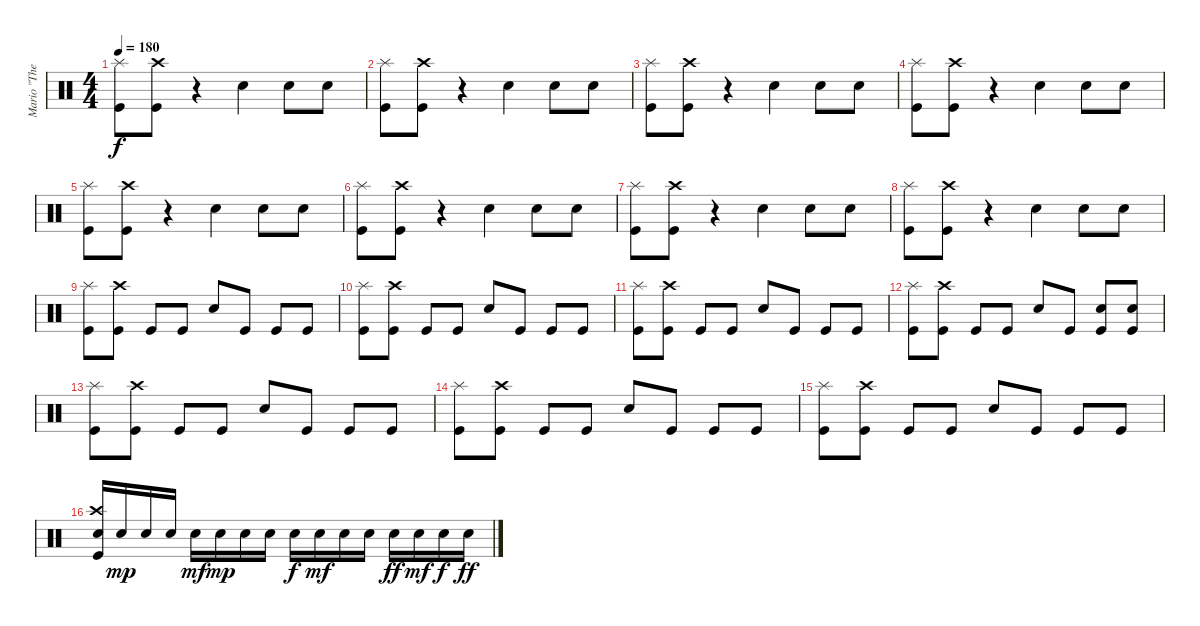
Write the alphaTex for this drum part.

\track ("Mario \"The dremmel\" Hirt" "Mario \"The") {instrument percussion}
\staff {score}
\articulation defaults
\ts (4 4)
\tempo 180
\clef neutral
\ks c
("Splash (hit)" "Kick (hit)").8{dy f} ("Crash high (hit)" "Kick (hit)").8 r.4 "Electric Snare (hit)".4 "Electric Snare (hit)".8 "Electric Snare (hit)".8 |
("Splash (hit)" "Kick (hit)").8 ("Crash high (hit)" "Kick (hit)").8 r.4 "Electric Snare (hit)".4 "Electric Snare (hit)".8 "Electric Snare (hit)".8 |
("Splash (hit)" "Kick (hit)").8 ("Crash high (hit)" "Kick (hit)").8 r.4 "Electric Snare (hit)".4 "Electric Snare (hit)".8 "Electric Snare (hit)".8 |
("Splash (hit)" "Kick (hit)").8 ("Crash high (hit)" "Kick (hit)").8 r.4 "Electric Snare (hit)".4 "Electric Snare (hit)".8 "Electric Snare (hit)".8 |
("Splash (hit)" "Kick (hit)").8 ("Crash high (hit)" "Kick (hit)").8 r.4 "Electric Snare (hit)".4 "Electric Snare (hit)".8 "Electric Snare (hit)".8 |
("Splash (hit)" "Kick (hit)").8 ("Crash high (hit)" "Kick (hit)").8 r.4 "Electric Snare (hit)".4 "Electric Snare (hit)".8 "Electric Snare (hit)".8 |
("Splash (hit)" "Kick (hit)").8 ("Crash high (hit)" "Kick (hit)").8 r.4 "Electric Snare (hit)".4 "Electric Snare (hit)".8 "Electric Snare (hit)".8 |
("Splash (hit)" "Kick (hit)").8 ("Crash high (hit)" "Kick (hit)").8 r.4 "Electric Snare (hit)".4 "Electric Snare (hit)".8 "Electric Snare (hit)".8 |
("Splash (hit)" "Kick (hit)").8 ("Crash high (hit)" "Kick (hit)").8 "Kick (hit)".8 "Kick (hit)".8 "Electric Snare (hit)".8 "Kick (hit)".8 "Kick (hit)".8 "Kick (hit)".8 |
("Splash (hit)" "Kick (hit)").8 ("Crash high (hit)" "Kick (hit)").8 "Kick (hit)".8 "Kick (hit)".8 "Electric Snare (hit)".8 "Kick (hit)".8 "Kick (hit)".8 "Kick (hit)".8 |
("Splash (hit)" "Kick (hit)").8 ("Crash high (hit)" "Kick (hit)").8 "Kick (hit)".8 "Kick (hit)".8 "Electric Snare (hit)".8 "Kick (hit)".8 "Kick (hit)".8 "Kick (hit)".8 |
("Splash (hit)" "Kick (hit)").8 ("Crash high (hit)" "Kick (hit)").8 "Kick (hit)".8 "Kick (hit)".8 "Electric Snare (hit)".8 "Kick (hit)".8 ("Electric Snare (hit)" "Kick (hit)").8 ("Electric Snare (hit)" "Kick (hit)").8 |
("Splash (hit)" "Kick (hit)").8 ("Crash high (hit)" "Kick (hit)").8 "Kick (hit)".8 "Kick (hit)".8 "Electric Snare (hit)".8 "Kick (hit)".8 "Kick (hit)".8 "Kick (hit)".8 |
("Splash (hit)" "Kick (hit)").8 ("Crash high (hit)" "Kick (hit)").8 "Kick (hit)".8 "Kick (hit)".8 "Electric Snare (hit)".8 "Kick (hit)".8 "Kick (hit)".8 "Kick (hit)".8 |
("Splash (hit)" "Kick (hit)").8 ("Crash high (hit)" "Kick (hit)").8 "Kick (hit)".8 "Kick (hit)".8 "Electric Snare (hit)".8 "Kick (hit)".8 "Kick (hit)".8 "Kick (hit)".8 |
("Crash high (hit)" "Electric Snare (hit)" "Kick (hit)").16 "Electric Snare (hit)".16{dy mp} "Electric Snare (hit)".16 "Electric Snare (hit)".16 "Electric Snare (hit)".16{dy mf} "Electric Snare (hit)".16{dy mp} "Electric Snare (hit)".16 "Electric Snare (hit)".16 "Electric Snare (hit)".16{dy f} "Electric Snare (hit)".16{dy mf} "Electric Snare (hit)".16 "Electric Snare (hit)".16 "Electric Snare (hit)".16{dy ff} "Electric Snare (hit)".16{dy mf} "Electric Snare (hit)".16{dy f} "Electric Snare (hit)".16{dy ff}
